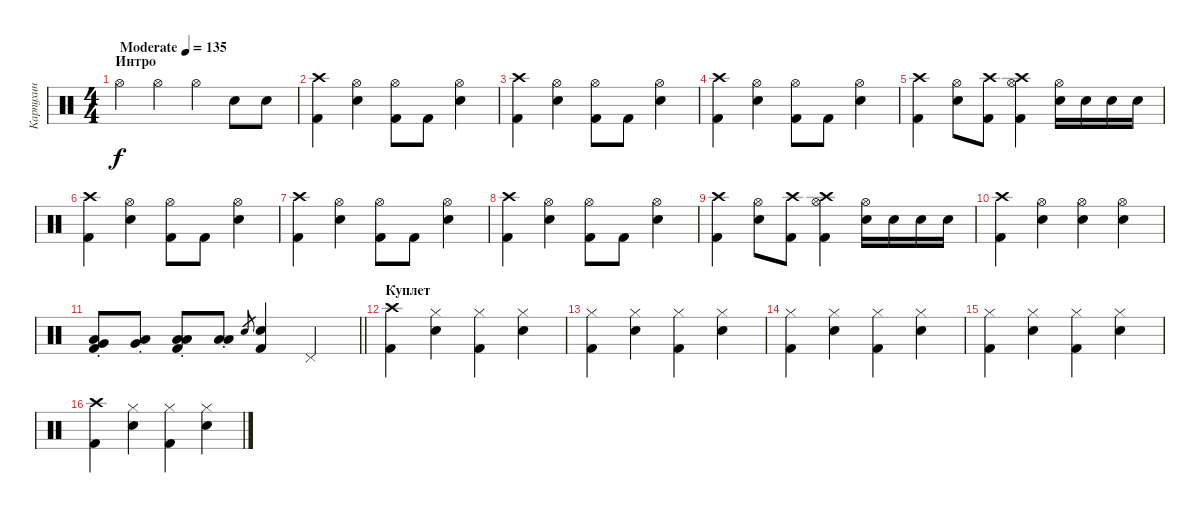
\track ("Карпухин" "Карпухин") {instrument percussion}
\staff {score}
\articulation defaults
\ts (4 4)
\section ("" "Интро")
\tempo (135 "Moderate")
\clef neutral
\ks c "Hi-Hat (open)".4{dy f} "Hi-Hat (open)".4 "Hi-Hat (open)".4 "Snare (hit) 2".8 "Snare (hit) 2".8
|
("Crash high (hit)" "Kick (hit) 2").4 ("Snare (hit) 2" "Hi-Hat (open)").4 ("Kick (hit) 2" "Hi-Hat (open)").8 "Kick (hit) 2".8 ("Snare (hit) 2" "Hi-Hat (open)").4 |
("Crash high (hit)" "Kick (hit) 2").4 ("Snare (hit) 2" "Hi-Hat (open)").4 ("Kick (hit) 2" "Hi-Hat (open)").8 "Kick (hit) 2".8 ("Snare (hit) 2" "Hi-Hat (open)").4 |
("Crash high (hit)" "Kick (hit) 2").4 ("Snare (hit) 2" "Hi-Hat (open)").4 ("Kick (hit) 2" "Hi-Hat (open)").8 "Kick (hit) 2".8 ("Snare (hit) 2" "Hi-Hat (open)").4 |
("Crash high (hit)" "Kick (hit) 2").4 ("Snare (hit) 2" "Hi-Hat (open)").8 ("Crash high (hit)" "Kick (hit) 2").8 ("Hi-Hat (open)" "Crash high (hit)" "Kick (hit) 2").4 ("Snare (hit) 2" "Hi-Hat (open)").16 "Snare (hit) 2".16 "Snare (hit) 2".16 "Snare (hit) 2".16 |
("Crash high (hit)" "Kick (hit) 2").4 ("Snare (hit) 2" "Hi-Hat (open)").4 ("Kick (hit) 2" "Hi-Hat (open)").8 "Kick (hit) 2".8 ("Snare (hit) 2" "Hi-Hat (open)").4 |
("Crash high (hit)" "Kick (hit) 2").4 ("Snare (hit) 2" "Hi-Hat (open)").4 ("Kick (hit) 2" "Hi-Hat (open)").8 "Kick (hit) 2".8 ("Snare (hit) 2" "Hi-Hat (open)").4 |
("Crash high (hit)" "Kick (hit) 2").4 ("Snare (hit) 2" "Hi-Hat (open)").4 ("Kick (hit) 2" "Hi-Hat (open)").8 "Kick (hit) 2".8 ("Snare (hit) 2" "Hi-Hat (open)").4 |
("Crash high (hit)" "Kick (hit) 2").4 ("Snare (hit) 2" "Hi-Hat (open)").8 ("Crash high (hit)" "Kick (hit) 2").8 ("Hi-Hat (open)" "Crash high (hit)" "Kick (hit) 2").4 ("Snare (hit) 2" "Hi-Hat (open)").16 "Snare (hit) 2".16 "Snare (hit) 2".16 "Snare (hit) 2".16 |
("Crash high (hit)" "Kick (hit) 2").4 ("Hi-Hat (open)" "Snare (hit) 2").4 ("Hi-Hat (open)" "Snare (hit) 2").4 ("Hi-Hat (open)" "Snare (hit) 2").4 |
\barLineRight lightlight
("Low Floor Tom (hit)"{st} "Very Low Tom (hit)"{st} "Kick (hit) 2"{st}).8 ("Low Floor Tom (hit)"{st} "Very Low Tom (hit)"{st}).8 ("Low Floor Tom (hit)"{st} "Low Tom (hit)"{st} "Kick (hit) 2"{st}).8 ("Low Floor Tom (hit)"{st} "Low Tom (hit)"{st}).8 "Snare (hit) 2".8{gr} ("Snare (hit) 2" "Kick (hit) 2").4 "Pedal Hi-Hat (hit)".4 |
\section ("" "Куплет")
("Crash high (hit)" "Kick (hit) 2").4 ("Snare (hit) 2" "Hi-Hat (closed)").4 ("Kick (hit) 2" "Hi-Hat (closed)").4 ("Snare (hit) 2" "Hi-Hat (closed)").4 |
("Kick (hit) 2" "Hi-Hat (closed)").4 ("Snare (hit) 2" "Hi-Hat (closed)").4 ("Kick (hit) 2" "Hi-Hat (closed)").4 ("Snare (hit) 2" "Hi-Hat (closed)").4 |
("Kick (hit) 2" "Hi-Hat (closed)").4 ("Snare (hit) 2" "Hi-Hat (closed)").4 ("Kick (hit) 2" "Hi-Hat (closed)").4 ("Snare (hit) 2" "Hi-Hat (closed)").4 |
("Kick (hit) 2" "Hi-Hat (closed)").4 ("Snare (hit) 2" "Hi-Hat (closed)").4 ("Kick (hit) 2" "Hi-Hat (closed)").4 ("Snare (hit) 2" "Hi-Hat (closed)").4 |
("Crash high (hit)" "Kick (hit) 2").4 ("Snare (hit) 2" "Hi-Hat (closed)").4 ("Kick (hit) 2" "Hi-Hat (closed)").4 ("Snare (hit) 2" "Hi-Hat (closed)").4
